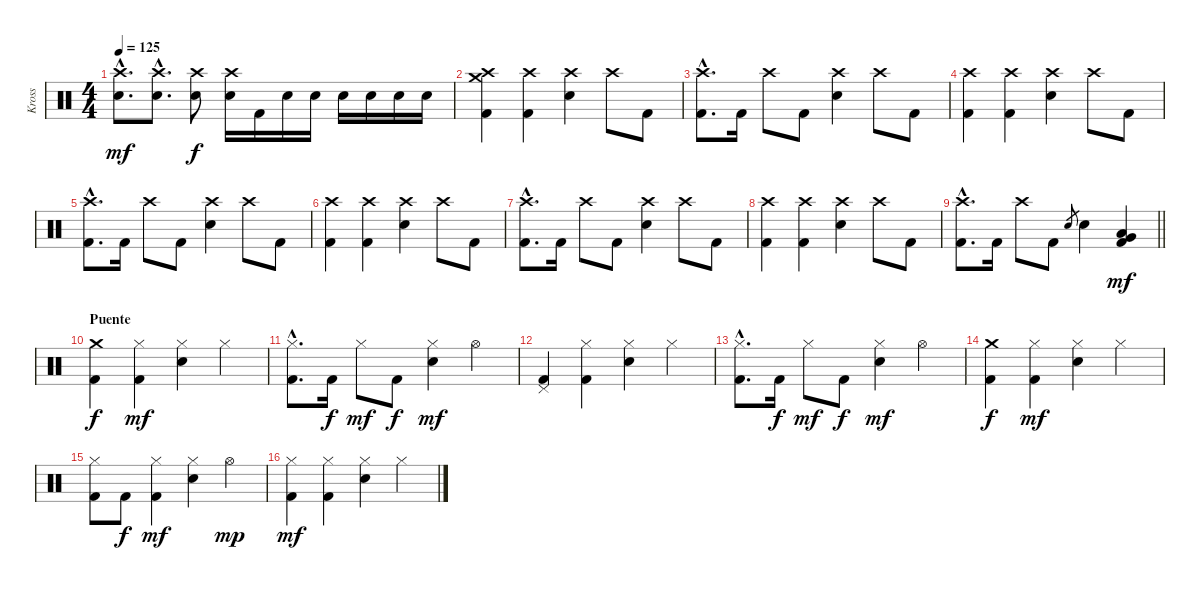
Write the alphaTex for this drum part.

\track ("Kross" "Kross") {instrument percussion}
\staff {score}
\articulation defaults
\ts (4 4)
\tempo 125
\clef neutral
\ks c
("Crash high (hit)"{hac} "Snare (hit) 2"{hac}).8{d dy mf} ("Crash high (hit)"{hac} "Snare (hit) 2"{hac}).8{d} ("Crash high (hit)" "Snare (hit) 2").8{dy f} ("Crash high (hit)" "Snare (hit) 2").16 "Kick (hit) 2".16 "Snare (hit) 2".16 "Snare (hit) 2".16 "Snare (hit) 2".16 "Snare (hit) 2".16 "Snare (hit) 2".16 "Snare (hit) 2".16 |
("Crash high (hit)" "Crash medium (hit)" "Kick (hit) 2").4 ("Crash high (hit)" "Kick (hit) 2").4 ("Crash high (hit)" "Snare (hit) 2").4 "Crash high (hit)".8 "Kick (hit) 2".8 |
("Crash high (hit)"{hac} "Kick (hit) 2"{hac}).8{d} "Kick (hit) 2".16 "Crash high (hit)".8 "Kick (hit) 2".8 ("Crash high (hit)" "Snare (hit) 2").4 "Crash high (hit)".8 "Kick (hit) 2".8 |
("Crash high (hit)" "Kick (hit) 2").4 ("Crash high (hit)" "Kick (hit) 2").4 ("Crash high (hit)" "Snare (hit) 2").4 "Crash high (hit)".8 "Kick (hit) 2".8 |
("Crash high (hit)"{hac} "Kick (hit) 2"{hac}).8{d} "Kick (hit) 2".16 "Crash high (hit)".8 "Kick (hit) 2".8 ("Crash high (hit)" "Snare (hit) 2").4 "Crash high (hit)".8 "Kick (hit) 2".8 |
("Crash high (hit)" "Kick (hit) 2").4 ("Crash high (hit)" "Kick (hit) 2").4 ("Crash high (hit)" "Snare (hit) 2").4 "Crash high (hit)".8 "Kick (hit) 2".8 |
("Crash high (hit)"{hac} "Kick (hit) 2"{hac}).8{d} "Kick (hit) 2".16 "Crash high (hit)".8 "Kick (hit) 2".8 ("Crash high (hit)" "Snare (hit) 2").4 "Crash high (hit)".8 "Kick (hit) 2".8 |
("Crash high (hit)" "Kick (hit) 2").4 ("Crash high (hit)" "Kick (hit) 2").4 ("Crash high (hit)" "Snare (hit) 2").4 "Crash high (hit)".8 "Kick (hit) 2".8 |
\barLineRight lightlight
("Crash high (hit)"{hac} "Kick (hit) 2"{hac}).8{d} "Kick (hit) 2".16 "Crash high (hit)".8 "Kick (hit) 2".8 "Snare (hit) 2".8{gr} "Snare (hit) 2".4 ("Low Tom (hit)" "Very Low Tom (hit)" "Kick (hit) 2").4{dy mf} |
\section ("" "Puente")
("Crash medium (hit)" "Kick (hit) 2").4{dy f} ("Hi-Hat (closed)" "Kick (hit) 2").4{dy mf} ("Hi-Hat (closed)" "Snare (hit) 2").4 "Hi-Hat (closed)".4 |
("Hi-Hat (closed)"{hac} "Kick (hit) 2"{hac}).8{d} "Kick (hit) 2".16{dy f} "Hi-Hat (closed)".8{dy mf} "Kick (hit) 2".8{dy f} ("Hi-Hat (closed)" "Snare (hit) 2").4{dy mf} "Hi-Hat (open)".4 |
("Pedal Hi-Hat (hit)" "Kick (hit) 2").4 ("Hi-Hat (closed)" "Kick (hit) 2").4 ("Hi-Hat (closed)" "Snare (hit) 2").4 "Hi-Hat (closed)".4 |
("Hi-Hat (closed)"{hac} "Kick (hit) 2"{hac}).8{d} "Kick (hit) 2".16{dy f} "Hi-Hat (closed)".8{dy mf} "Kick (hit) 2".8{dy f} ("Hi-Hat (closed)" "Snare (hit) 2").4{dy mf} "Hi-Hat (open)".4 |
("Crash medium (hit)" "Kick (hit) 2").4{dy f} ("Hi-Hat (closed)" "Kick (hit) 2").4{dy mf} ("Hi-Hat (closed)" "Snare (hit) 2").4 "Hi-Hat (closed)".4 |
("Hi-Hat (closed)" "Kick (hit) 2").8 "Kick (hit) 2".8{dy f} ("Hi-Hat (closed)" "Kick (hit) 2").4{dy mf} ("Hi-Hat (closed)" "Snare (hit) 2").4 "Hi-Hat (open)".4{dy mp} |
("Hi-Hat (closed)" "Kick (hit) 2").4{dy mf} ("Hi-Hat (closed)" "Kick (hit) 2").4 ("Hi-Hat (closed)" "Snare (hit) 2").4 "Hi-Hat (closed)".4
